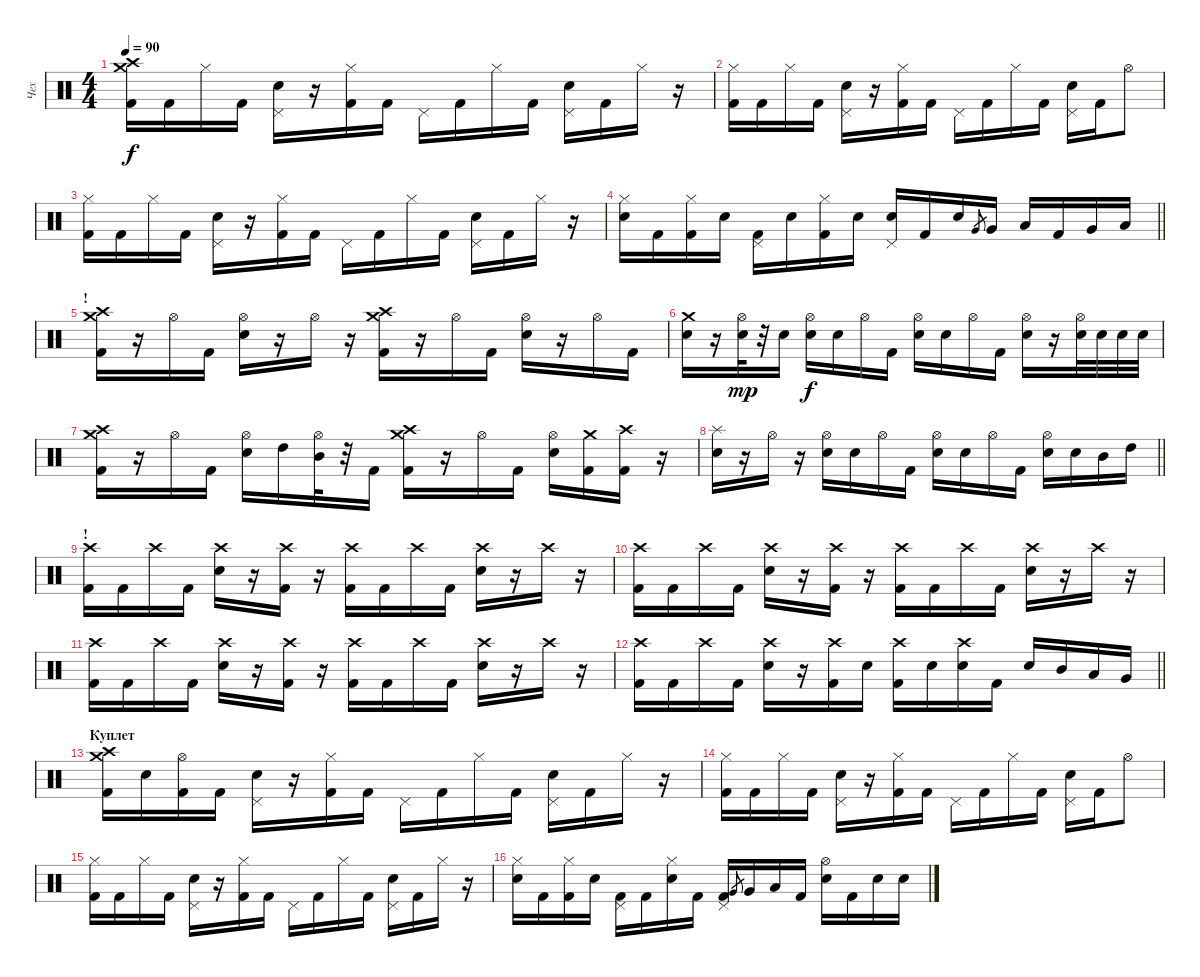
\track ("Чех" "Чех") {instrument percussion}
\staff {score}
\articulation defaults
\ts (4 4)
\tempo 90
\clef neutral
\ks c
("Crash medium (hit)" "Crash high (hit)" "Kick (hit) 2").16{dy f} "Kick (hit) 2".16 "Hi-Hat (closed)".16 "Kick (hit) 2".16 ("Pedal Hi-Hat (hit)" "Snare (hit) 2").16 r.16 ("Hi-Hat (closed)" "Kick (hit) 2").16 "Kick (hit) 2".16 "Pedal Hi-Hat (hit)".16 "Kick (hit) 2".16 "Hi-Hat (closed)".16 "Kick (hit) 2".16 ("Pedal Hi-Hat (hit)" "Snare (hit) 2").16 "Kick (hit) 2".16 "Hi-Hat (closed)".16 r.16 |
("Hi-Hat (closed)" "Kick (hit) 2").16 "Kick (hit) 2".16 "Hi-Hat (closed)".16 "Kick (hit) 2".16 ("Pedal Hi-Hat (hit)" "Snare (hit) 2").16 r.16 ("Hi-Hat (closed)" "Kick (hit) 2").16 "Kick (hit) 2".16 "Pedal Hi-Hat (hit)".16 "Kick (hit) 2".16 "Hi-Hat (closed)".16 "Kick (hit) 2".16 ("Pedal Hi-Hat (hit)" "Snare (hit) 2").16 "Kick (hit) 2".16 "Hi-Hat (open)".8 |
("Hi-Hat (closed)" "Kick (hit) 2").16 "Kick (hit) 2".16 "Hi-Hat (closed)".16 "Kick (hit) 2".16 ("Pedal Hi-Hat (hit)" "Snare (hit) 2").16 r.16 ("Hi-Hat (closed)" "Kick (hit) 2").16 "Kick (hit) 2".16 "Pedal Hi-Hat (hit)".16 "Kick (hit) 2".16 "Hi-Hat (closed)".16 "Kick (hit) 2".16 ("Pedal Hi-Hat (hit)" "Snare (hit) 2").16 "Kick (hit) 2".16 "Hi-Hat (closed)".16 r.16 |
\barLineRight lightlight
("Hi-Hat (closed)" "Snare (hit) 2").16 "Kick (hit) 2".16 ("Hi-Hat (closed)" "Kick (hit) 2").16 "Snare (hit) 2".16 ("Pedal Hi-Hat (hit)" "Kick (hit) 2").16 "Snare (hit) 2".16 ("Hi-Hat (closed)" "Kick (hit) 2").16 "Snare (hit) 2".16 ("Pedal Hi-Hat (hit)" "Snare (hit) 2").16 "Kick (hit) 2".16 "Snare (hit) 2".16 "Very Low Tom (hit)".8{gr} "Very Low Tom (hit)".16 "Low Tom (hit)".16 "Kick (hit) 2".16 "Very Low Tom (hit)".16 "Low Tom (hit)".16 |
\section ("" "!")
("Crash medium (hit)" "Crash high (hit)" "Kick (hit) 2").16 r.16 "Hi-Hat (open)".16 "Kick (hit) 2".16 ("Hi-Hat (open)" "Snare (hit) 2").16 r.16 "Hi-Hat (open)".16 r.16 ("Crash medium (hit)" "Crash high (hit)" "Kick (hit) 2").16 r.16 "Hi-Hat (open)".16 "Kick (hit) 2".16 ("Hi-Hat (open)" "Snare (hit) 2").16 r.16 "Hi-Hat (open)".16 "Kick (hit) 2".16 |
("Crash medium (hit)" "Snare (hit) 2").16 r.16 ("Hi-Hat (open)" "Snare (hit) 2").32{dy mp} r.32 "Snare (hit) 2".16 ("Hi-Hat (open)" "Snare (hit) 2").16{dy f} "Snare (hit) 2".16 "Hi-Hat (open)".16 "Kick (hit) 2".16 ("Hi-Hat (open)" "Snare (hit) 2").16 "Snare (hit) 2".16 "Hi-Hat (open)".16 "Kick (hit) 2".16 ("Hi-Hat (open)" "Snare (hit) 2").16 r.16 ("Hi-Hat (open)" "Snare (hit) 2").32 "Snare (hit) 2".32 "Snare (hit) 2".32 "Snare (hit) 2".32 |
("Crash medium (hit)" "Crash high (hit)" "Kick (hit) 2").16 r.16 "Hi-Hat (open)".16 "Kick (hit) 2".16 ("Hi-Hat (open)" "Snare (hit) 2").16 "High Tom (hit)".16 ("Hi-Hat (open)" "Mid Tom (hit)").32 r.32 "Kick (hit) 2".16 ("Crash medium (hit)" "Crash high (hit)" "Kick (hit) 2").16 r.16 "Hi-Hat (open)".16 "Kick (hit) 2".16 ("Hi-Hat (open)" "Snare (hit) 2").16 ("Crash medium (hit)" "Kick (hit) 2").16 ("Crash high (hit)" "Kick (hit) 2").16 r.16 |
\barLineRight lightlight
("Splash (hit)" "Snare (hit) 2").16 r.16 "Hi-Hat (open)".16 r.16 ("Hi-Hat (open)" "Snare (hit) 2").16 "Snare (hit) 2".16 "Hi-Hat (open)".16 "Kick (hit) 2".16 ("Hi-Hat (open)" "Snare (hit) 2").16 "Snare (hit) 2".16 "Hi-Hat (open)".16 "Kick (hit) 2".16 ("Hi-Hat (open)" "Snare (hit) 2").16 "Snare (hit) 2".16 "Mid Tom (hit)".16 "High Tom (hit)".16 |
\section ("" "!")
("Crash high (hit)" "Kick (hit) 2").16 "Kick (hit) 2".16 "Crash high (hit)".16 "Kick (hit) 2".16 ("Crash high (hit)" "Snare (hit) 2").16 r.16 ("Crash high (hit)" "Kick (hit) 2").16 r.16 ("Crash high (hit)" "Kick (hit) 2").16 "Kick (hit) 2".16 "Crash high (hit)".16 "Kick (hit) 2".16 ("Crash high (hit)" "Snare (hit) 2").16 r.16 "Crash high (hit)".16 r.16 |
("Crash high (hit)" "Kick (hit) 2").16 "Kick (hit) 2".16 "Crash high (hit)".16 "Kick (hit) 2".16 ("Crash high (hit)" "Snare (hit) 2").16 r.16 ("Crash high (hit)" "Kick (hit) 2").16 r.16 ("Crash high (hit)" "Kick (hit) 2").16 "Kick (hit) 2".16 "Crash high (hit)".16 "Kick (hit) 2".16 ("Crash high (hit)" "Snare (hit) 2").16 r.16 "Crash high (hit)".16 r.16 |
("Crash high (hit)" "Kick (hit) 2").16 "Kick (hit) 2".16 "Crash high (hit)".16 "Kick (hit) 2".16 ("Crash high (hit)" "Snare (hit) 2").16 r.16 ("Crash high (hit)" "Kick (hit) 2").16 r.16 ("Crash high (hit)" "Kick (hit) 2").16 "Kick (hit) 2".16 "Crash high (hit)".16 "Kick (hit) 2".16 ("Crash high (hit)" "Snare (hit) 2").16 r.16 "Crash high (hit)".16 r.16 |
\barLineRight lightlight
("Crash high (hit)" "Kick (hit) 2").16 "Kick (hit) 2".16 "Crash high (hit)".16 "Kick (hit) 2".16 ("Crash high (hit)" "Snare (hit) 2").16 r.16 ("Crash high (hit)" "Kick (hit) 2").16 "Snare (hit) 2".16 ("Crash high (hit)" "Kick (hit) 2").16 "Snare (hit) 2".16 ("Crash high (hit)" "Snare (hit) 2").16 "Kick (hit) 2".16 "Snare (hit) 2".16 "Mid Tom (hit)".16 "Low Tom (hit)".16 "Very Low Tom (hit)".16 |
\section ("" "Куплет")
("Crash medium (hit)" "Crash high (hit)" "Kick (hit) 2").16 "Snare (hit) 2".16 ("Hi-Hat (open)" "Kick (hit) 2").16 "Kick (hit) 2".16 ("Pedal Hi-Hat (hit)" "Snare (hit) 2").16 r.16 ("Hi-Hat (closed)" "Kick (hit) 2").16 "Kick (hit) 2".16 "Pedal Hi-Hat (hit)".16 "Kick (hit) 2".16 "Hi-Hat (closed)".16 "Kick (hit) 2".16 ("Pedal Hi-Hat (hit)" "Snare (hit) 2").16 "Kick (hit) 2".16 "Hi-Hat (closed)".16 r.16 |
("Hi-Hat (closed)" "Kick (hit) 2").16 "Kick (hit) 2".16 "Hi-Hat (closed)".16 "Kick (hit) 2".16 ("Pedal Hi-Hat (hit)" "Snare (hit) 2").16 r.16 ("Hi-Hat (closed)" "Kick (hit) 2").16 "Kick (hit) 2".16 "Pedal Hi-Hat (hit)".16 "Kick (hit) 2".16 "Hi-Hat (closed)".16 "Kick (hit) 2".16 ("Pedal Hi-Hat (hit)" "Snare (hit) 2").16 "Kick (hit) 2".16 "Hi-Hat (open)".8 |
("Hi-Hat (closed)" "Kick (hit) 2").16 "Kick (hit) 2".16 "Hi-Hat (closed)".16 "Kick (hit) 2".16 ("Pedal Hi-Hat (hit)" "Snare (hit) 2").16 r.16 ("Hi-Hat (closed)" "Kick (hit) 2").16 "Kick (hit) 2".16 "Pedal Hi-Hat (hit)".16 "Kick (hit) 2".16 "Hi-Hat (closed)".16 "Kick (hit) 2".16 ("Pedal Hi-Hat (hit)" "Snare (hit) 2").16 "Kick (hit) 2".16 "Hi-Hat (closed)".16 r.16 |
("Hi-Hat (closed)" "Snare (hit) 2").16 "Kick (hit) 2".16 ("Hi-Hat (closed)" "Kick (hit) 2").16 "Snare (hit) 2".16 ("Pedal Hi-Hat (hit)" "Kick (hit) 2").16 "Kick (hit) 2".16 ("Hi-Hat (closed)" "Snare (hit) 2").16 "Kick (hit) 2".16 ("Pedal Hi-Hat (hit)" "Kick (hit) 2").16 "Very Low Tom (hit)".8{gr} "Very Low Tom (hit)".16 "Low Tom (hit)".16 "Kick (hit) 2".16 ("Hi-Hat (open)" "Snare (hit) 2").16 "Kick (hit) 2".16 "Snare (hit) 2".16 "Snare (hit) 2".16
